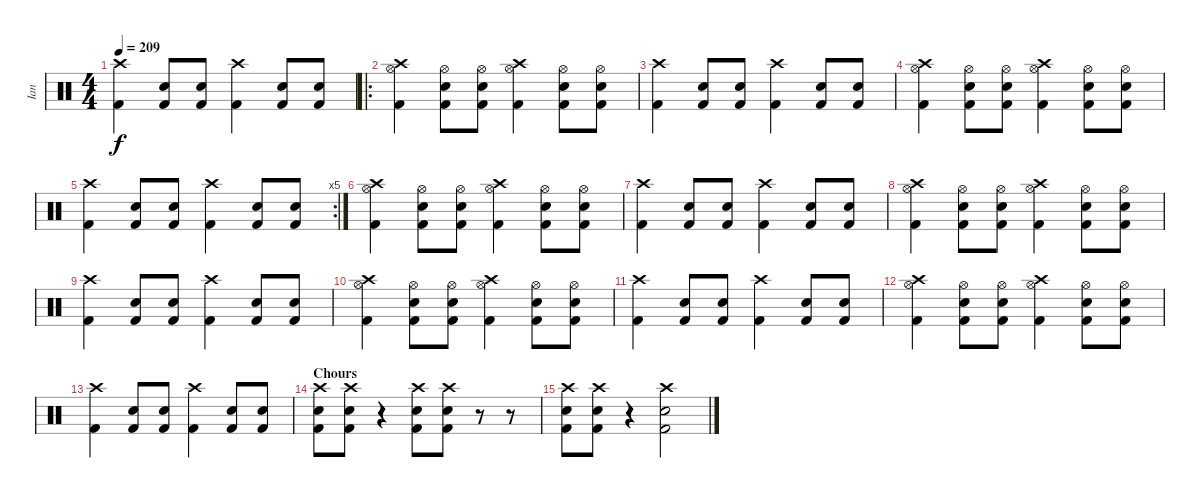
\track ("Ian" "Ian") {instrument percussion}
\staff {score}
\articulation defaults
\ts (4 4)
\tempo 209
\clef neutral
\ks c
("Crash high (hit)" "Kick (hit) 2").4{dy f} ("Electric Snare (hit)" "Kick (hit) 2").8 ("Electric Snare (hit)" "Kick (hit) 2").8 ("Crash high (hit)" "Kick (hit) 2").4 ("Electric Snare (hit)" "Kick (hit) 2").8 ("Electric Snare (hit)" "Kick (hit) 2").8 |
\ro
("Hi-Hat (open)" "Crash high (hit)" "Kick (hit) 2").4 ("Electric Snare (hit)" "Hi-Hat (open)" "Kick (hit) 2").8 ("Electric Snare (hit)" "Hi-Hat (open)" "Kick (hit) 2").8 ("Hi-Hat (open)" "Crash high (hit)" "Kick (hit) 2").4 ("Electric Snare (hit)" "Hi-Hat (open)" "Kick (hit) 2").8 ("Electric Snare (hit)" "Hi-Hat (open)" "Kick (hit) 2").8 |
("Crash high (hit)" "Kick (hit) 2").4 ("Electric Snare (hit)" "Kick (hit) 2").8 ("Electric Snare (hit)" "Kick (hit) 2").8 ("Crash high (hit)" "Kick (hit) 2").4 ("Electric Snare (hit)" "Kick (hit) 2").8 ("Electric Snare (hit)" "Kick (hit) 2").8 |
("Hi-Hat (open)" "Crash high (hit)" "Kick (hit) 2").4 ("Electric Snare (hit)" "Hi-Hat (open)" "Kick (hit) 2").8 ("Electric Snare (hit)" "Hi-Hat (open)" "Kick (hit) 2").8 ("Hi-Hat (open)" "Crash high (hit)" "Kick (hit) 2").4 ("Electric Snare (hit)" "Hi-Hat (open)" "Kick (hit) 2").8 ("Electric Snare (hit)" "Hi-Hat (open)" "Kick (hit) 2").8 |
\rc 5
("Crash high (hit)" "Kick (hit) 2").4 ("Electric Snare (hit)" "Kick (hit) 2").8 ("Electric Snare (hit)" "Kick (hit) 2").8 ("Crash high (hit)" "Kick (hit) 2").4 ("Electric Snare (hit)" "Kick (hit) 2").8 ("Electric Snare (hit)" "Kick (hit) 2").8 |
("Hi-Hat (open)" "Crash high (hit)" "Kick (hit) 2").4 ("Electric Snare (hit)" "Hi-Hat (open)" "Kick (hit) 2").8 ("Electric Snare (hit)" "Hi-Hat (open)" "Kick (hit) 2").8 ("Hi-Hat (open)" "Crash high (hit)" "Kick (hit) 2").4 ("Electric Snare (hit)" "Hi-Hat (open)" "Kick (hit) 2").8 ("Electric Snare (hit)" "Hi-Hat (open)" "Kick (hit) 2").8 |
("Crash high (hit)" "Kick (hit) 2").4 ("Electric Snare (hit)" "Kick (hit) 2").8 ("Electric Snare (hit)" "Kick (hit) 2").8 ("Crash high (hit)" "Kick (hit) 2").4 ("Electric Snare (hit)" "Kick (hit) 2").8 ("Electric Snare (hit)" "Kick (hit) 2").8 |
("Hi-Hat (open)" "Crash high (hit)" "Kick (hit) 2").4 ("Electric Snare (hit)" "Hi-Hat (open)" "Kick (hit) 2").8 ("Electric Snare (hit)" "Hi-Hat (open)" "Kick (hit) 2").8 ("Hi-Hat (open)" "Crash high (hit)" "Kick (hit) 2").4 ("Electric Snare (hit)" "Hi-Hat (open)" "Kick (hit) 2").8 ("Electric Snare (hit)" "Hi-Hat (open)" "Kick (hit) 2").8 |
("Crash high (hit)" "Kick (hit) 2").4 ("Electric Snare (hit)" "Kick (hit) 2").8 ("Electric Snare (hit)" "Kick (hit) 2").8 ("Crash high (hit)" "Kick (hit) 2").4 ("Electric Snare (hit)" "Kick (hit) 2").8 ("Electric Snare (hit)" "Kick (hit) 2").8 |
("Hi-Hat (open)" "Crash high (hit)" "Kick (hit) 2").4 ("Electric Snare (hit)" "Hi-Hat (open)" "Kick (hit) 2").8 ("Electric Snare (hit)" "Hi-Hat (open)" "Kick (hit) 2").8 ("Hi-Hat (open)" "Crash high (hit)" "Kick (hit) 2").4 ("Electric Snare (hit)" "Hi-Hat (open)" "Kick (hit) 2").8 ("Electric Snare (hit)" "Hi-Hat (open)" "Kick (hit) 2").8 |
("Crash high (hit)" "Kick (hit) 2").4 ("Electric Snare (hit)" "Kick (hit) 2").8 ("Electric Snare (hit)" "Kick (hit) 2").8 ("Crash high (hit)" "Kick (hit) 2").4 ("Electric Snare (hit)" "Kick (hit) 2").8 ("Electric Snare (hit)" "Kick (hit) 2").8 |
("Hi-Hat (open)" "Crash high (hit)" "Kick (hit) 2").4 ("Electric Snare (hit)" "Hi-Hat (open)" "Kick (hit) 2").8 ("Electric Snare (hit)" "Hi-Hat (open)" "Kick (hit) 2").8 ("Hi-Hat (open)" "Crash high (hit)" "Kick (hit) 2").4 ("Electric Snare (hit)" "Hi-Hat (open)" "Kick (hit) 2").8 ("Electric Snare (hit)" "Hi-Hat (open)" "Kick (hit) 2").8 |
("Crash high (hit)" "Kick (hit) 2").4 ("Electric Snare (hit)" "Kick (hit) 2").8 ("Electric Snare (hit)" "Kick (hit) 2").8 ("Crash high (hit)" "Kick (hit) 2").4 ("Electric Snare (hit)" "Kick (hit) 2").8 ("Electric Snare (hit)" "Kick (hit) 2").8 |
\section ("" "Chours")
("Crash high (hit)" "Electric Snare (hit)" "Kick (hit) 2").8 ("Crash high (hit)" "Electric Snare (hit)" "Kick (hit) 2").8 r.4 ("Crash high (hit)" "Electric Snare (hit)" "Kick (hit) 2").8 ("Crash high (hit)" "Electric Snare (hit)" "Kick (hit) 2").8 r.8 r.8 |
("Crash high (hit)" "Electric Snare (hit)" "Kick (hit) 2").8 ("Crash high (hit)" "Electric Snare (hit)" "Kick (hit) 2").8 r.4 ("Electric Snare (hit)" "Crash high (hit)" "Kick (hit) 2").2
